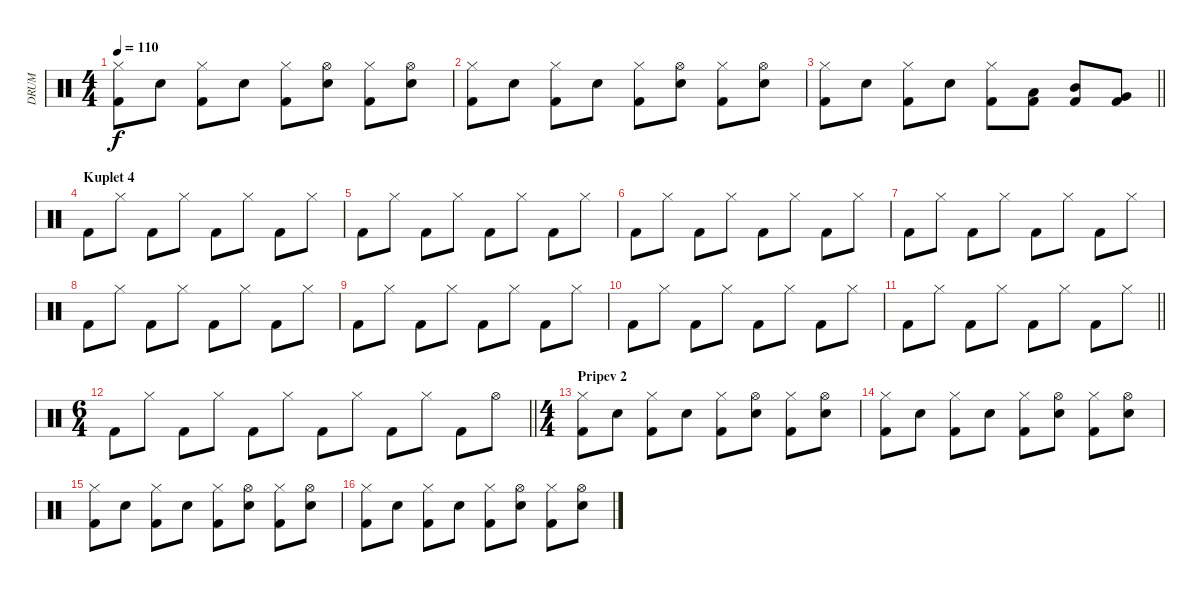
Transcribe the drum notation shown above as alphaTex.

\track ("DRUM" "DRUM") {instrument percussion}
\staff {score}
\articulation defaults
\ts (4 4)
\tempo 110
\clef neutral
\ks c
("Hi-Hat (closed)" "Kick (hit) 2").8{dy f} "Electric Snare (hit)".8 ("Hi-Hat (closed)" "Kick (hit) 2").8 "Electric Snare (hit)".8 ("Hi-Hat (closed)" "Kick (hit) 2").8 ("Hi-Hat (open)" "Electric Snare (hit)").8 ("Hi-Hat (closed)" "Kick (hit) 2").8 ("Hi-Hat (open)" "Electric Snare (hit)").8 |
("Hi-Hat (closed)" "Kick (hit) 2").8 "Electric Snare (hit)".8 ("Hi-Hat (closed)" "Kick (hit) 2").8 "Electric Snare (hit)".8 ("Hi-Hat (closed)" "Kick (hit) 2").8 ("Hi-Hat (open)" "Electric Snare (hit)").8 ("Hi-Hat (closed)" "Kick (hit) 2").8 ("Hi-Hat (open)" "Electric Snare (hit)").8 |
\barLineRight lightlight
("Hi-Hat (closed)" "Kick (hit) 2").8 "Electric Snare (hit)".8 ("Hi-Hat (closed)" "Kick (hit) 2").8 "Electric Snare (hit)".8 ("Hi-Hat (closed)" "Kick (hit) 2").8 ("Low Tom (hit)" "Kick (hit) 2").8 ("Mid Tom (hit)" "Kick (hit) 2").8 ("Very Low Tom (hit)" "Kick (hit) 2").8 |
\section ("" "Kuplet 4")
"Kick (hit) 2".8 "Hi-Hat (closed)".8 "Kick (hit) 2".8 "Hi-Hat (closed)".8 "Kick (hit) 2".8 "Hi-Hat (closed)".8 "Kick (hit) 2".8 "Hi-Hat (closed)".8 |
"Kick (hit) 2".8 "Hi-Hat (closed)".8 "Kick (hit) 2".8 "Hi-Hat (closed)".8 "Kick (hit) 2".8 "Hi-Hat (closed)".8 "Kick (hit) 2".8 "Hi-Hat (closed)".8 |
"Kick (hit) 2".8 "Hi-Hat (closed)".8 "Kick (hit) 2".8 "Hi-Hat (closed)".8 "Kick (hit) 2".8 "Hi-Hat (closed)".8 "Kick (hit) 2".8 "Hi-Hat (closed)".8 |
"Kick (hit) 2".8 "Hi-Hat (closed)".8 "Kick (hit) 2".8 "Hi-Hat (closed)".8 "Kick (hit) 2".8 "Hi-Hat (closed)".8 "Kick (hit) 2".8 "Hi-Hat (closed)".8 |
"Kick (hit) 2".8 "Hi-Hat (closed)".8 "Kick (hit) 2".8 "Hi-Hat (closed)".8 "Kick (hit) 2".8 "Hi-Hat (closed)".8 "Kick (hit) 2".8 "Hi-Hat (closed)".8 |
"Kick (hit) 2".8 "Hi-Hat (closed)".8 "Kick (hit) 2".8 "Hi-Hat (closed)".8 "Kick (hit) 2".8 "Hi-Hat (closed)".8 "Kick (hit) 2".8 "Hi-Hat (closed)".8 |
"Kick (hit) 2".8 "Hi-Hat (closed)".8 "Kick (hit) 2".8 "Hi-Hat (closed)".8 "Kick (hit) 2".8 "Hi-Hat (closed)".8 "Kick (hit) 2".8 "Hi-Hat (closed)".8 |
\barLineRight lightlight "Kick (hit) 2".8 "Hi-Hat (closed)".8 "Kick (hit) 2".8 "Hi-Hat (closed)".8 "Kick (hit) 2".8 "Hi-Hat (closed)".8 "Kick (hit) 2".8 "Hi-Hat (closed)".8
|
\ts (6 4)
\barLineRight lightlight "Kick (hit) 2".8 "Hi-Hat (closed)".8 "Kick (hit) 2".8 "Hi-Hat (closed)".8 "Kick (hit) 2".8 "Hi-Hat (closed)".8 "Kick (hit) 2".8 "Hi-Hat (closed)".8 "Kick (hit) 2".8 "Hi-Hat (closed)".8 "Kick (hit) 2".8 "Hi-Hat (open)".8
|
\ts (4 4)
\section ("" "Pripev 2")
("Hi-Hat (closed)" "Kick (hit) 2").8 "Electric Snare (hit)".8 ("Hi-Hat (closed)" "Kick (hit) 2").8 "Electric Snare (hit)".8 ("Hi-Hat (closed)" "Kick (hit) 2").8 ("Hi-Hat (open)" "Electric Snare (hit)").8 ("Hi-Hat (closed)" "Kick (hit) 2").8 ("Hi-Hat (open)" "Electric Snare (hit)").8 |
("Hi-Hat (closed)" "Kick (hit) 2").8 "Electric Snare (hit)".8 ("Hi-Hat (closed)" "Kick (hit) 2").8 "Electric Snare (hit)".8 ("Hi-Hat (closed)" "Kick (hit) 2").8 ("Hi-Hat (open)" "Electric Snare (hit)").8 ("Hi-Hat (closed)" "Kick (hit) 2").8 ("Hi-Hat (open)" "Electric Snare (hit)").8 |
("Hi-Hat (closed)" "Kick (hit) 2").8 "Electric Snare (hit)".8 ("Hi-Hat (closed)" "Kick (hit) 2").8 "Electric Snare (hit)".8 ("Hi-Hat (closed)" "Kick (hit) 2").8 ("Hi-Hat (open)" "Electric Snare (hit)").8 ("Hi-Hat (closed)" "Kick (hit) 2").8 ("Hi-Hat (open)" "Electric Snare (hit)").8 |
("Hi-Hat (closed)" "Kick (hit) 2").8 "Electric Snare (hit)".8 ("Hi-Hat (closed)" "Kick (hit) 2").8 "Electric Snare (hit)".8 ("Hi-Hat (closed)" "Kick (hit) 2").8 ("Hi-Hat (open)" "Electric Snare (hit)").8 ("Hi-Hat (closed)" "Kick (hit) 2").8 ("Hi-Hat (open)" "Electric Snare (hit)").8
